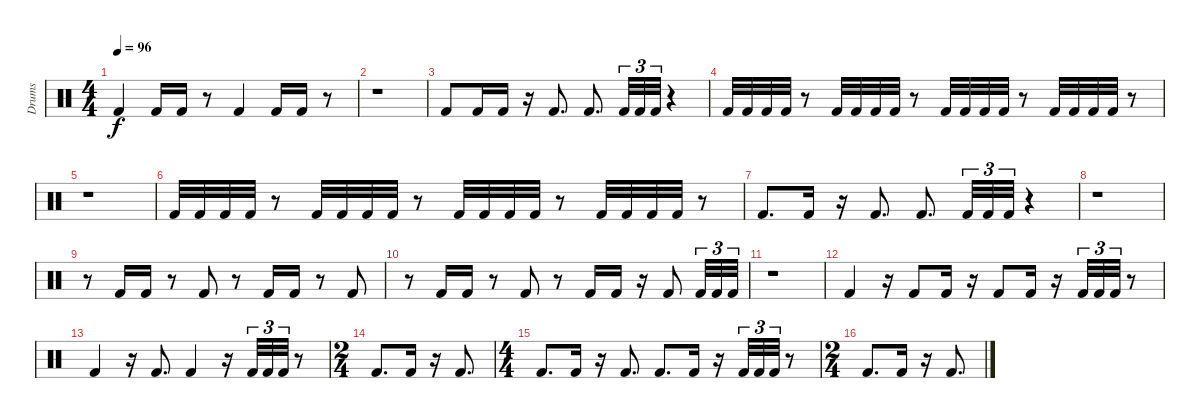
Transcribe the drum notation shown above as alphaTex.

\track ("Drums" "Drums") {instrument percussion}
\staff {score}
\articulation defaults
\ts (4 4)
\tempo 96
\clef neutral
\ks c "Kick (hit) 2".4{dy f} "Kick (hit) 2".16 "Kick (hit) 2".16
r.8 "Kick (hit) 2".4 "Kick (hit) 2".16 "Kick (hit) 2".16 r.8 |
r.1 |
"Kick (hit) 2".8 "Kick (hit) 2".16 "Kick (hit) 2".16 r.16 "Kick (hit) 2".8{d} "Kick (hit) 2".8{d} "Kick (hit) 2".32{tu (3 2)} "Kick (hit) 2".32{tu (3 2)} "Kick (hit) 2".32{tu (3 2)} r.4 |
"Kick (hit) 2".32 "Kick (hit) 2".32 "Kick (hit) 2".32 "Kick (hit) 2".32 r.8 "Kick (hit) 2".32 "Kick (hit) 2".32 "Kick (hit) 2".32 "Kick (hit) 2".32 r.8 "Kick (hit) 2".32 "Kick (hit) 2".32 "Kick (hit) 2".32 "Kick (hit) 2".32 r.8 "Kick (hit) 2".32 "Kick (hit) 2".32 "Kick (hit) 2".32 "Kick (hit) 2".32 r.8 |
r.1 |
"Kick (hit) 2".32 "Kick (hit) 2".32 "Kick (hit) 2".32 "Kick (hit) 2".32 r.8 "Kick (hit) 2".32 "Kick (hit) 2".32 "Kick (hit) 2".32 "Kick (hit) 2".32 r.8 "Kick (hit) 2".32 "Kick (hit) 2".32 "Kick (hit) 2".32 "Kick (hit) 2".32 r.8 "Kick (hit) 2".32 "Kick (hit) 2".32 "Kick (hit) 2".32 "Kick (hit) 2".32 r.8 |
"Kick (hit) 2".8{d} "Kick (hit) 2".16 r.16 "Kick (hit) 2".8{d} "Kick (hit) 2".8{d} "Kick (hit) 2".32{tu (3 2)} "Kick (hit) 2".32{tu (3 2)} "Kick (hit) 2".32{tu (3 2)} r.4 |
r.1 |
r.8 "Kick (hit) 2".16 "Kick (hit) 2".16 r.8 "Kick (hit) 2".8 r.8 "Kick (hit) 2".16 "Kick (hit) 2".16 r.8 "Kick (hit) 2".8 |
r.8 "Kick (hit) 2".16 "Kick (hit) 2".16 r.8 "Kick (hit) 2".8 r.8 "Kick (hit) 2".16 "Kick (hit) 2".16 r.16 "Kick (hit) 2".8 "Kick (hit) 2".32{tu (3 2)} "Kick (hit) 2".32{tu (3 2)} "Kick (hit) 2".32{tu (3 2)} |
r.1 |
"Kick (hit) 2".4 r.16 "Kick (hit) 2".8 "Kick (hit) 2".16 r.16 "Kick (hit) 2".8 "Kick (hit) 2".16 r.16 "Kick (hit) 2".32{tu (3 2)} "Kick (hit) 2".32{tu (3 2)} "Kick (hit) 2".32{tu (3 2)} r.8 |
"Kick (hit) 2".4 r.16 "Kick (hit) 2".8{d} "Kick (hit) 2".4 r.16 "Kick (hit) 2".32{tu (3 2)} "Kick (hit) 2".32{tu (3 2)} "Kick (hit) 2".32{tu (3 2)} r.8 |
\ts (2 4)
"Kick (hit) 2".8{d} "Kick (hit) 2".16 r.16 "Kick (hit) 2".8{d} |
\ts (4 4)
"Kick (hit) 2".8{d} "Kick (hit) 2".16 r.16 "Kick (hit) 2".8{d} "Kick (hit) 2".8{d} "Kick (hit) 2".16 r.16 "Kick (hit) 2".32{tu (3 2)} "Kick (hit) 2".32{tu (3 2)} "Kick (hit) 2".32{tu (3 2)} r.8 |
\ts (2 4)
"Kick (hit) 2".8{d} "Kick (hit) 2".16 r.16 "Kick (hit) 2".8{d}
